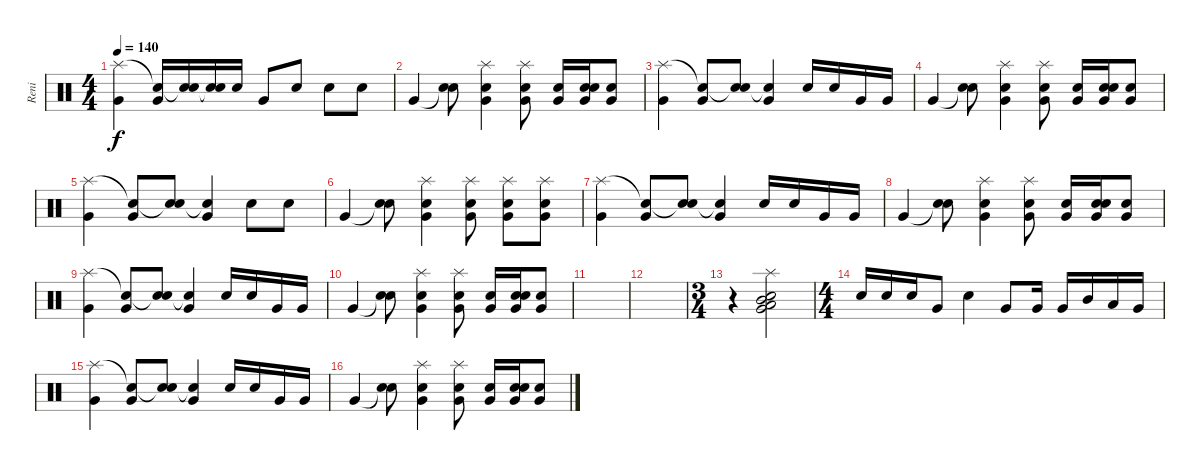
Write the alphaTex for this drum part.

\track ("Reni" "Reni") {instrument percussion}
\staff {score}
\articulation defaults
\ts (4 4)
\tempo 140
\clef neutral
\ks c
("Splash (hit)" "Very Low Tom (hit)").4{dy f} ("Snare (hit)"{t} "Very Low Tom (hit)").16 ("Snare (hit)"{t} "Electric Snare (hit)").16 ("Snare (hit)"{t} "Snare (hit) 2").16 "Snare (hit) 2".16 "Very Low Tom (hit)".8 "Electric Snare (hit)".8 "Snare (hit) 2".8 "Snare (hit) 2".8 |
"Very Low Tom (hit)".4 ("Snare (hit)"{t} "Snare (hit) 2").8 ("Splash (hit)" "Electric Snare (hit)" "Very Low Tom (hit)").4 ("Splash (hit)" "Electric Snare (hit)" "Very Low Tom (hit)").8 ("Snare (hit) 2" "Very Low Tom (hit)").16 ("Electric Snare (hit)" "Electric Snare (hit)" "Very Low Tom (hit)").16 ("Electric Snare (hit)" "Very Low Tom (hit)").8 |
("Splash (hit)" "Very Low Tom (hit)").4 ("Snare (hit)"{t} "Very Low Tom (hit)").8 ("Snare (hit)"{t} "Electric Snare (hit)").8 ("Snare (hit)"{t} "Very Low Tom (hit)").4 "Snare (hit) 2".16 "Electric Snare (hit)".16 "Very Low Tom (hit)".16 "Very Low Tom (hit)".16 |
"Very Low Tom (hit)".4 ("Snare (hit)"{t} "Snare (hit) 2").8 ("Splash (hit)" "Electric Snare (hit)" "Very Low Tom (hit)").4 ("Splash (hit)" "Electric Snare (hit)" "Very Low Tom (hit)").8 ("Snare (hit) 2" "Very Low Tom (hit)").16 ("Electric Snare (hit)" "Electric Snare (hit)" "Very Low Tom (hit)").16 ("Electric Snare (hit)" "Very Low Tom (hit)").8 |
("Splash (hit)" "Very Low Tom (hit)").4 ("Snare (hit)"{t} "Very Low Tom (hit)").8 ("Snare (hit)"{t} "Electric Snare (hit)").8 ("Snare (hit)"{t} "Very Low Tom (hit)").4 "Snare (hit) 2".8 "Electric Snare (hit)".8 |
"Very Low Tom (hit)".4 ("Snare (hit)"{t} "Snare (hit) 2").8 ("Splash (hit)" "Electric Snare (hit)" "Very Low Tom (hit)").4 ("Splash (hit)" "Electric Snare (hit)" "Very Low Tom (hit)").8 ("Splash (hit)" "Snare (hit) 2" "Very Low Tom (hit)").8 ("Splash (hit)" "Electric Snare (hit)" "Very Low Tom (hit)").8 |
("Splash (hit)" "Very Low Tom (hit)").4 ("Snare (hit)"{t} "Very Low Tom (hit)").8 ("Snare (hit)"{t} "Electric Snare (hit)").8 ("Snare (hit)"{t} "Very Low Tom (hit)").4 "Snare (hit) 2".16 "Electric Snare (hit)".16 "Very Low Tom (hit)".16 "Very Low Tom (hit)".16 |
"Very Low Tom (hit)".4 ("Snare (hit)"{t} "Snare (hit) 2").8 ("Splash (hit)" "Electric Snare (hit)" "Very Low Tom (hit)").4 ("Splash (hit)" "Electric Snare (hit)" "Very Low Tom (hit)").8 ("Snare (hit) 2" "Very Low Tom (hit)").16 ("Electric Snare (hit)" "Electric Snare (hit)" "Very Low Tom (hit)").16 ("Electric Snare (hit)" "Very Low Tom (hit)").8 |
("Splash (hit)" "Very Low Tom (hit)").4 ("Snare (hit)"{t} "Very Low Tom (hit)").8 ("Snare (hit)"{t} "Electric Snare (hit)").8 ("Snare (hit)"{t} "Very Low Tom (hit)").4 "Snare (hit) 2".16 "Electric Snare (hit)".16 "Very Low Tom (hit)".16 "Very Low Tom (hit)".16 |
"Very Low Tom (hit)".4 ("Snare (hit)"{t} "Snare (hit) 2").8 ("Splash (hit)" "Electric Snare (hit)" "Very Low Tom (hit)").4 ("Splash (hit)" "Electric Snare (hit)" "Very Low Tom (hit)").8 ("Snare (hit) 2" "Very Low Tom (hit)").16 ("Electric Snare (hit)" "Electric Snare (hit)" "Very Low Tom (hit)").16 ("Electric Snare (hit)" "Very Low Tom (hit)").8 |
|
|
\ts (3 4)
r.4 ("Splash (hit)" "Mid Tom (hit)" "Electric Snare (hit)" "Very Low Tom (hit)" "Low Tom (hit)").2 |
\ts (4 4)
"Snare (hit) 2".16 "Snare (hit) 2".16 "Snare (hit) 2".16 "Very Low Tom (hit)".8 "Electric Snare (hit)".4 "Very Low Tom (hit)".8 "Very Low Tom (hit)".16 "Very Low Tom (hit)".16 "Mid Tom (hit)".16 "Low Tom (hit)".16 "Very Low Tom (hit)".16 |
("Splash (hit)" "Very Low Tom (hit)").4 ("Snare (hit)"{t} "Very Low Tom (hit)").8 ("Snare (hit)"{t} "Electric Snare (hit)").8 ("Snare (hit)"{t} "Very Low Tom (hit)").4 "Snare (hit) 2".16 "Electric Snare (hit)".16 "Very Low Tom (hit)".16 "Very Low Tom (hit)".16 |
"Very Low Tom (hit)".4 ("Snare (hit)"{t} "Snare (hit) 2").8 ("Splash (hit)" "Electric Snare (hit)" "Very Low Tom (hit)").4 ("Splash (hit)" "Electric Snare (hit)" "Very Low Tom (hit)").8 ("Snare (hit) 2" "Very Low Tom (hit)").16 ("Electric Snare (hit)" "Electric Snare (hit)" "Very Low Tom (hit)").16 ("Electric Snare (hit)" "Very Low Tom (hit)").8
